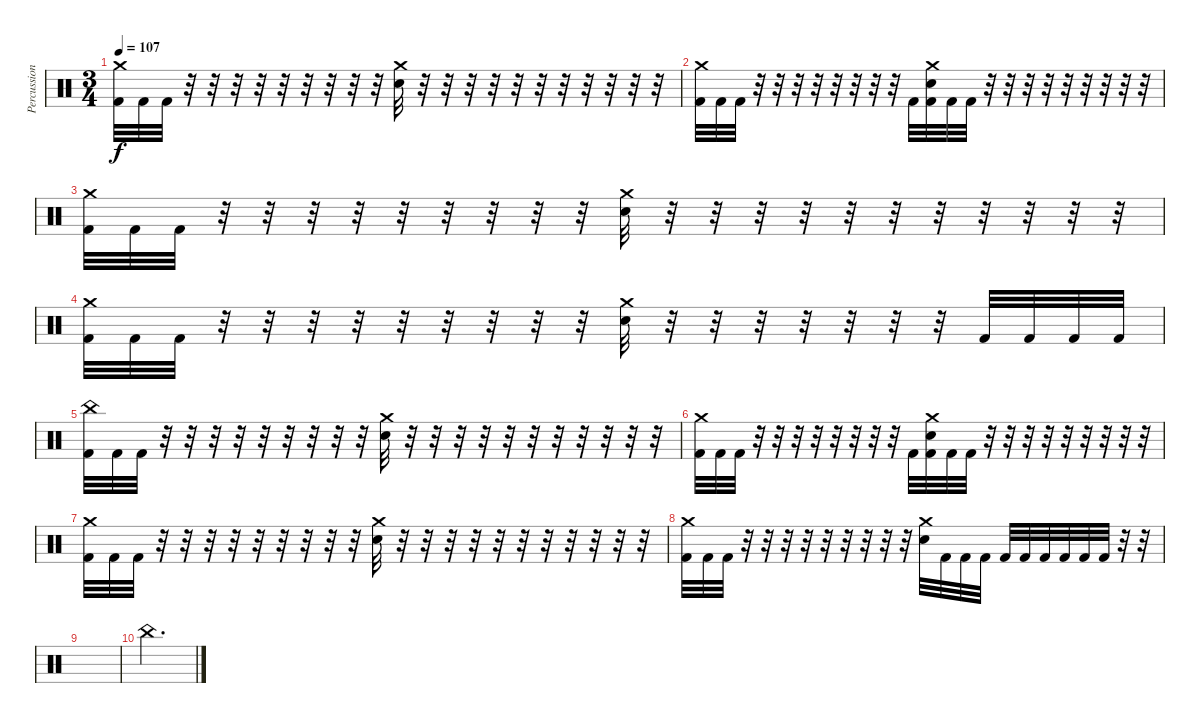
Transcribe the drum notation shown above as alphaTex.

\track ("Percussion" "Percussion") {instrument percussion}
\staff {score}
\articulation defaults
\ts (3 4)
\tempo 107
\clef neutral
\ks c
("Crash medium (hit)" "Kick (hit) 2").32{dy f} "Kick (hit) 2".32 "Kick (hit) 2".32 r.32 r.32 r.32 r.32 r.32 r.32 r.32 r.32 r.32 ("Crash medium (hit)" "Electric Snare (hit)").32 r.32 r.32 r.32 r.32 r.32 r.32 r.32 r.32 r.32 r.32 r.32 |
("Crash medium (hit)" "Kick (hit) 2").32 "Kick (hit) 2".32 "Kick (hit) 2".32 r.32 r.32 r.32 r.32 r.32 r.32 r.32 r.32 "Kick (hit) 2".32 ("Crash medium (hit)" "Electric Snare (hit)" "Kick (hit) 2").32 "Kick (hit) 2".32 "Kick (hit) 2".32 r.32 r.32 r.32 r.32 r.32 r.32 r.32 r.32 r.32 |
("Crash medium (hit)" "Kick (hit) 2").32 "Kick (hit) 2".32 "Kick (hit) 2".32 r.32 r.32 r.32 r.32 r.32 r.32 r.32 r.32 r.32 ("Crash medium (hit)" "Electric Snare (hit)").32 r.32 r.32 r.32 r.32 r.32 r.32 r.32 r.32 r.32 r.32 r.32 |
("Crash medium (hit)" "Kick (hit) 2").32 "Kick (hit) 2".32 "Kick (hit) 2".32 r.32 r.32 r.32 r.32 r.32 r.32 r.32 r.32 r.32 ("Crash medium (hit)" "Electric Snare (hit)").32 r.32 r.32 r.32 r.32 r.32 r.32 r.32 "Kick (hit) 2".32 "Kick (hit) 2".32 "Kick (hit) 2".32 "Kick (hit) 2".32 |
("China (hit)" "Kick (hit) 2").32 "Kick (hit) 2".32 "Kick (hit) 2".32 r.32 r.32 r.32 r.32 r.32 r.32 r.32 r.32 r.32 ("Crash medium (hit)" "Electric Snare (hit)").32 r.32 r.32 r.32 r.32 r.32 r.32 r.32 r.32 r.32 r.32 r.32 |
("Crash medium (hit)" "Kick (hit) 2").32 "Kick (hit) 2".32 "Kick (hit) 2".32 r.32 r.32 r.32 r.32 r.32 r.32 r.32 r.32 "Kick (hit) 2".32 ("Crash medium (hit)" "Electric Snare (hit)" "Kick (hit) 2").32 "Kick (hit) 2".32 "Kick (hit) 2".32 r.32 r.32 r.32 r.32 r.32 r.32 r.32 r.32 r.32 |
("Crash medium (hit)" "Kick (hit) 2").32 "Kick (hit) 2".32 "Kick (hit) 2".32 r.32 r.32 r.32 r.32 r.32 r.32 r.32 r.32 r.32 ("Crash medium (hit)" "Electric Snare (hit)").32 r.32 r.32 r.32 r.32 r.32 r.32 r.32 r.32 r.32 r.32 r.32 |
("Crash medium (hit)" "Kick (hit) 2").32 "Kick (hit) 2".32 "Kick (hit) 2".32 r.32 r.32 r.32 r.32 r.32 r.32 r.32 r.32 r.32 ("Crash medium (hit)" "Electric Snare (hit)").32 "Kick (hit) 2".32 "Kick (hit) 2".32 "Kick (hit) 2".32 "Kick (hit) 2".32 "Kick (hit) 2".32 "Kick (hit) 2".32 "Kick (hit) 2".32 "Kick (hit) 2".32 "Kick (hit) 2".32 r.32 r.32 |
|
"China (hit)".2{d}
